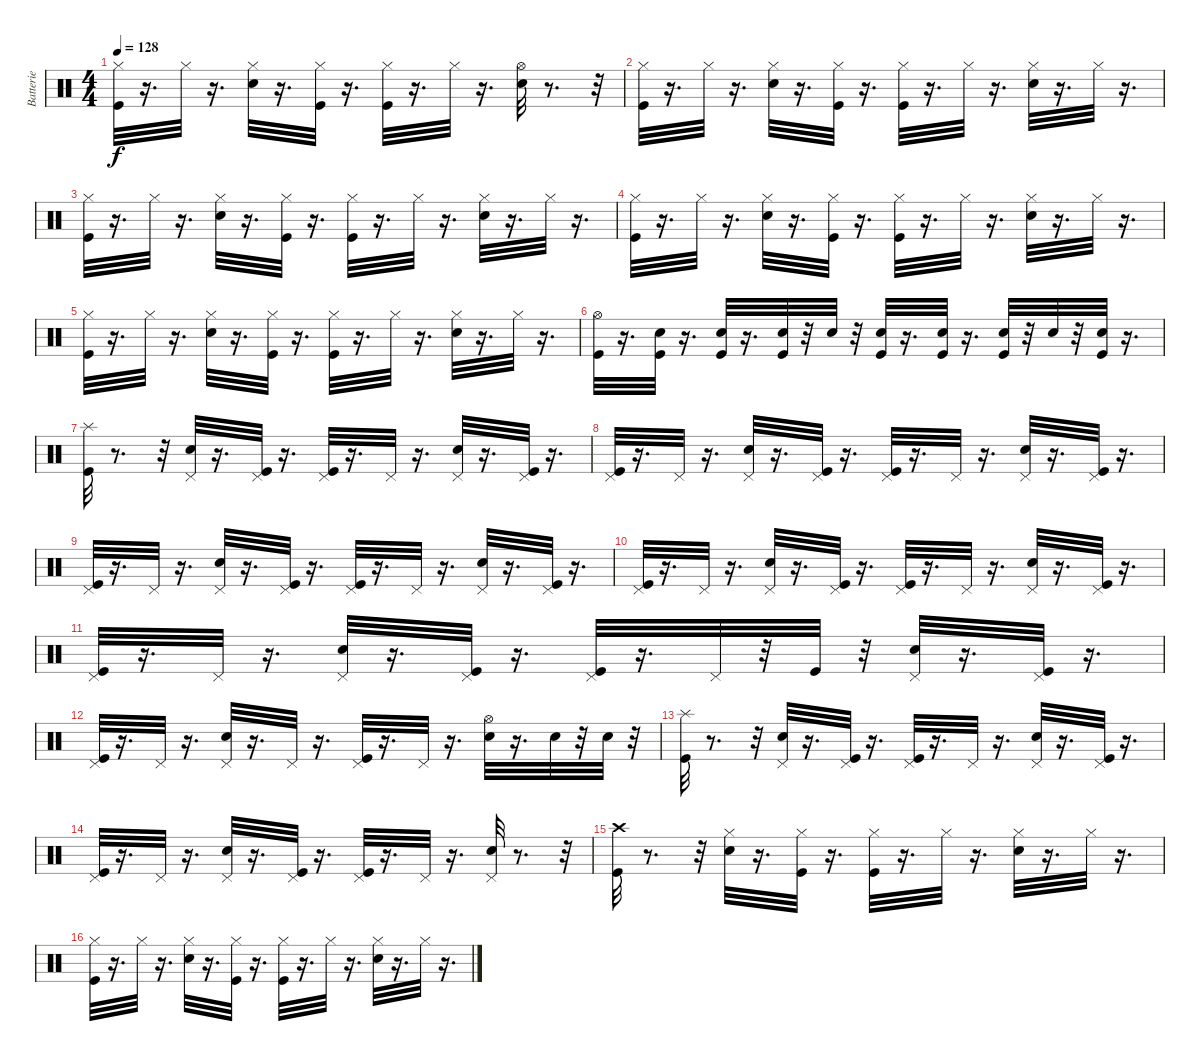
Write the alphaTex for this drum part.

\track ("Batterie" "Batterie") {instrument percussion}
\staff {score}
\articulation defaults
\ts (4 4)
\tempo 128
\clef neutral
\ks c
("Kick (hit)" "Hi-Hat (closed)").32{dy f} r.16{d} "Hi-Hat (closed)".32 r.16{d} ("Snare (hit) 2" "Hi-Hat (closed)").32 r.16{d} ("Kick (hit)" "Hi-Hat (closed)").32 r.16{d} ("Kick (hit)" "Hi-Hat (closed)").32 r.16{d} "Hi-Hat (closed)".32 r.16{d} ("Hi-Hat (open)" "Snare (hit) 2").32 r.8{d} r.32 |
("Hi-Hat (closed)" "Kick (hit)").32 r.16{d} "Hi-Hat (closed)".32 r.16{d} ("Snare (hit) 2" "Hi-Hat (closed)").32 r.16{d} ("Kick (hit)" "Hi-Hat (closed)").32 r.16{d} ("Kick (hit)" "Hi-Hat (closed)").32 r.16{d} "Hi-Hat (closed)".32 r.16{d} ("Snare (hit) 2" "Hi-Hat (closed)").32 r.16{d} "Hi-Hat (closed)".32 r.16{d} |
("Kick (hit)" "Hi-Hat (closed)").32 r.16{d} "Hi-Hat (closed)".32 r.16{d} ("Snare (hit) 2" "Hi-Hat (closed)").32 r.16{d} ("Kick (hit)" "Hi-Hat (closed)").32 r.16{d} ("Kick (hit)" "Hi-Hat (closed)").32 r.16{d} "Hi-Hat (closed)".32 r.16{d} ("Snare (hit) 2" "Hi-Hat (closed)").32 r.16{d} "Hi-Hat (closed)".32 r.16{d} |
("Kick (hit)" "Hi-Hat (closed)").32 r.16{d} "Hi-Hat (closed)".32 r.16{d} ("Snare (hit) 2" "Hi-Hat (closed)").32 r.16{d} ("Kick (hit)" "Hi-Hat (closed)").32 r.16{d} ("Kick (hit)" "Hi-Hat (closed)").32 r.16{d} "Hi-Hat (closed)".32 r.16{d} ("Snare (hit) 2" "Hi-Hat (closed)").32 r.16{d} "Hi-Hat (closed)".32 r.16{d} |
("Kick (hit)" "Hi-Hat (closed)").32 r.16{d} "Hi-Hat (closed)".32 r.16{d} ("Snare (hit) 2" "Hi-Hat (closed)").32 r.16{d} ("Kick (hit)" "Hi-Hat (closed)").32 r.16{d} ("Kick (hit)" "Hi-Hat (closed)").32 r.16{d} "Hi-Hat (closed)".32 r.16{d} ("Snare (hit) 2" "Hi-Hat (closed)").32 r.16{d} "Hi-Hat (closed)".32 r.16{d} |
("Kick (hit)" "Hi-Hat (open)").32 r.16{d} ("Kick (hit)" "Snare (hit) 2").32 r.16{d} ("Snare (hit) 2" "Kick (hit)").32 r.16{d} ("Kick (hit)" "Snare (hit) 2").32 r.32 "Snare (hit) 2".32 r.32 ("Snare (hit) 2" "Kick (hit)").32 r.16{d} ("Kick (hit)" "Snare (hit) 2").32 r.16{d} ("Kick (hit)" "Snare (hit) 2").32 r.32 "Snare (hit) 2".32 r.32 ("Snare (hit) 2" "Kick (hit)").32 r.16{d} |
("Kick (hit)" "Splash (hit)").32 r.8{d} r.32 ("Pedal Hi-Hat (hit)" "Snare (hit) 2").32 r.16{d} ("Kick (hit)" "Pedal Hi-Hat (hit)").32 r.16{d} ("Pedal Hi-Hat (hit)" "Kick (hit)").32 r.16{d} "Pedal Hi-Hat (hit)".32 r.16{d} ("Pedal Hi-Hat (hit)" "Snare (hit) 2").32 r.16{d} ("Kick (hit)" "Pedal Hi-Hat (hit)").32 r.16{d} |
("Pedal Hi-Hat (hit)" "Kick (hit)").32 r.16{d} "Pedal Hi-Hat (hit)".32 r.16{d} ("Pedal Hi-Hat (hit)" "Snare (hit) 2").32 r.16{d} ("Pedal Hi-Hat (hit)" "Kick (hit)").32 r.16{d} ("Pedal Hi-Hat (hit)" "Kick (hit)").32 r.16{d} "Pedal Hi-Hat (hit)".32 r.16{d} ("Pedal Hi-Hat (hit)" "Snare (hit) 2").32 r.16{d} ("Pedal Hi-Hat (hit)" "Kick (hit)").32 r.16{d} |
("Pedal Hi-Hat (hit)" "Kick (hit)").32 r.16{d} "Pedal Hi-Hat (hit)".32 r.16{d} ("Pedal Hi-Hat (hit)" "Snare (hit) 2").32 r.16{d} ("Kick (hit)" "Pedal Hi-Hat (hit)").32 r.16{d} ("Pedal Hi-Hat (hit)" "Kick (hit)").32 r.16{d} "Pedal Hi-Hat (hit)".32 r.16{d} ("Pedal Hi-Hat (hit)" "Snare (hit) 2").32 r.16{d} ("Kick (hit)" "Pedal Hi-Hat (hit)").32 r.16{d} |
("Pedal Hi-Hat (hit)" "Kick (hit)").32 r.16{d} "Pedal Hi-Hat (hit)".32 r.16{d} ("Pedal Hi-Hat (hit)" "Snare (hit) 2").32 r.16{d} ("Pedal Hi-Hat (hit)" "Kick (hit)").32 r.16{d} ("Pedal Hi-Hat (hit)" "Kick (hit)").32 r.16{d} "Pedal Hi-Hat (hit)".32 r.16{d} ("Pedal Hi-Hat (hit)" "Snare (hit) 2").32 r.16{d} ("Pedal Hi-Hat (hit)" "Kick (hit)").32 r.16{d} |
("Pedal Hi-Hat (hit)" "Kick (hit)").32 r.16{d} "Pedal Hi-Hat (hit)".32 r.16{d} ("Pedal Hi-Hat (hit)" "Snare (hit) 2").32 r.16{d} ("Kick (hit)" "Pedal Hi-Hat (hit)").32 r.16{d} ("Pedal Hi-Hat (hit)" "Kick (hit)").32 r.16{d} "Pedal Hi-Hat (hit)".32 r.32 "Kick (hit)".32 r.32 ("Pedal Hi-Hat (hit)" "Snare (hit) 2").32 r.16{d} ("Kick (hit)" "Pedal Hi-Hat (hit)").32 r.16{d} |
("Pedal Hi-Hat (hit)" "Kick (hit)").32 r.16{d} "Pedal Hi-Hat (hit)".32 r.16{d} ("Pedal Hi-Hat (hit)" "Snare (hit) 2").32 r.16{d} "Pedal Hi-Hat (hit)".32 r.16{d} ("Pedal Hi-Hat (hit)" "Kick (hit)").32 r.16{d} "Pedal Hi-Hat (hit)".32 r.16{d} ("Hi-Hat (open)" "Snare (hit) 2").32 r.16{d} "Snare (hit) 2".32 r.32 "Snare (hit) 2".32 r.32 |
("Splash (hit)" "Kick (hit)").32 r.8{d} r.32 ("Pedal Hi-Hat (hit)" "Snare (hit) 2").32 r.16{d} ("Kick (hit)" "Pedal Hi-Hat (hit)").32 r.16{d} ("Pedal Hi-Hat (hit)" "Kick (hit)").32 r.16{d} "Pedal Hi-Hat (hit)".32 r.16{d} ("Pedal Hi-Hat (hit)" "Snare (hit) 2").32 r.16{d} ("Kick (hit)" "Pedal Hi-Hat (hit)").32 r.16{d} |
("Pedal Hi-Hat (hit)" "Kick (hit)").32 r.16{d} "Pedal Hi-Hat (hit)".32 r.16{d} ("Pedal Hi-Hat (hit)" "Snare (hit) 2").32 r.16{d} ("Pedal Hi-Hat (hit)" "Kick (hit)").32 r.16{d} ("Pedal Hi-Hat (hit)" "Kick (hit)").32 r.16{d} "Pedal Hi-Hat (hit)".32 r.16{d} ("Pedal Hi-Hat (hit)" "Snare (hit) 2").32 r.8{d} r.32 |
("Kick (hit)" "Crash high (hit)").32 r.8{d} r.32 ("Snare (hit) 2" "Hi-Hat (closed)").32 r.16{d} ("Kick (hit)" "Hi-Hat (closed)").32 r.16{d} ("Kick (hit)" "Hi-Hat (closed)").32 r.16{d} "Hi-Hat (closed)".32 r.16{d} ("Snare (hit) 2" "Hi-Hat (closed)").32 r.16{d} "Hi-Hat (closed)".32 r.16{d} |
("Kick (hit)" "Hi-Hat (closed)").32 r.16{d} "Hi-Hat (closed)".32 r.16{d} ("Snare (hit) 2" "Hi-Hat (closed)").32 r.16{d} ("Kick (hit)" "Hi-Hat (closed)").32 r.16{d} ("Kick (hit)" "Hi-Hat (closed)").32 r.16{d} "Hi-Hat (closed)".32 r.16{d} ("Snare (hit) 2" "Hi-Hat (closed)").32 r.16{d} "Hi-Hat (closed)".32 r.16{d}
